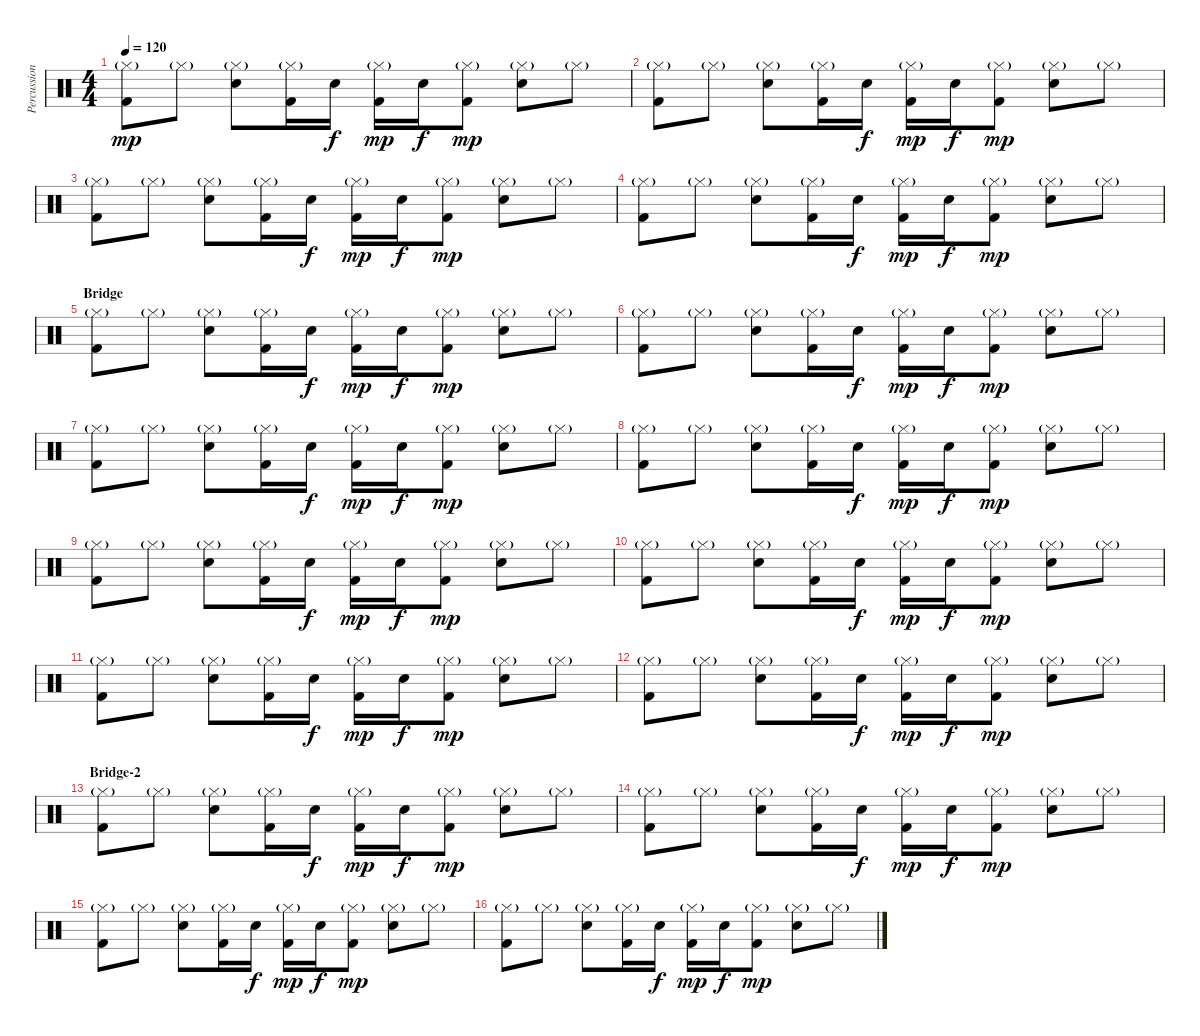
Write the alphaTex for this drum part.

\track ("Percussions" "Percussion") {instrument percussion}
\staff {score}
\articulation defaults
\ts (4 4)
\tempo 120
\clef neutral
\ks c
("Hi-Hat (closed)"{g} "Kick (hit) 2").8{dy mp} "Hi-Hat (closed)"{g}.8 ("Hi-Hat (closed)"{g} "Snare (hit) 2").8 ("Hi-Hat (closed)"{g} "Kick (hit) 2").16 "Snare (hit) 2".16{dy f} ("Hi-Hat (closed)"{g} "Kick (hit) 2").16{dy mp} "Snare (hit) 2".16{dy f} ("Hi-Hat (closed)"{g} "Kick (hit) 2").8{dy mp} ("Hi-Hat (closed)"{g} "Snare (hit) 2").8 "Hi-Hat (closed)"{g}.8 |
("Hi-Hat (closed)"{g} "Kick (hit) 2").8 "Hi-Hat (closed)"{g}.8 ("Hi-Hat (closed)"{g} "Snare (hit) 2").8 ("Hi-Hat (closed)"{g} "Kick (hit) 2").16 "Snare (hit) 2".16{dy f} ("Hi-Hat (closed)"{g} "Kick (hit) 2").16{dy mp} "Snare (hit) 2".16{dy f} ("Hi-Hat (closed)"{g} "Kick (hit) 2").8{dy mp} ("Hi-Hat (closed)"{g} "Snare (hit) 2").8 "Hi-Hat (closed)"{g}.8 |
("Hi-Hat (closed)"{g} "Kick (hit) 2").8 "Hi-Hat (closed)"{g}.8 ("Hi-Hat (closed)"{g} "Snare (hit) 2").8 ("Hi-Hat (closed)"{g} "Kick (hit) 2").16 "Snare (hit) 2".16{dy f} ("Hi-Hat (closed)"{g} "Kick (hit) 2").16{dy mp} "Snare (hit) 2".16{dy f} ("Hi-Hat (closed)"{g} "Kick (hit) 2").8{dy mp} ("Hi-Hat (closed)"{g} "Snare (hit) 2").8 "Hi-Hat (closed)"{g}.8 |
("Hi-Hat (closed)"{g} "Kick (hit) 2").8 "Hi-Hat (closed)"{g}.8 ("Hi-Hat (closed)"{g} "Snare (hit) 2").8 ("Hi-Hat (closed)"{g} "Kick (hit) 2").16 "Snare (hit) 2".16{dy f} ("Hi-Hat (closed)"{g} "Kick (hit) 2").16{dy mp} "Snare (hit) 2".16{dy f} ("Hi-Hat (closed)"{g} "Kick (hit) 2").8{dy mp} ("Hi-Hat (closed)"{g} "Snare (hit) 2").8 "Hi-Hat (closed)"{g}.8 |
\section ("" "Bridge")
("Hi-Hat (closed)"{g} "Kick (hit) 2").8 "Hi-Hat (closed)"{g}.8 ("Hi-Hat (closed)"{g} "Snare (hit) 2").8 ("Hi-Hat (closed)"{g} "Kick (hit) 2").16 "Snare (hit) 2".16{dy f} ("Hi-Hat (closed)"{g} "Kick (hit) 2").16{dy mp} "Snare (hit) 2".16{dy f} ("Hi-Hat (closed)"{g} "Kick (hit) 2").8{dy mp} ("Hi-Hat (closed)"{g} "Snare (hit) 2").8 "Hi-Hat (closed)"{g}.8 |
("Hi-Hat (closed)"{g} "Kick (hit) 2").8 "Hi-Hat (closed)"{g}.8 ("Hi-Hat (closed)"{g} "Snare (hit) 2").8 ("Hi-Hat (closed)"{g} "Kick (hit) 2").16 "Snare (hit) 2".16{dy f} ("Hi-Hat (closed)"{g} "Kick (hit) 2").16{dy mp} "Snare (hit) 2".16{dy f} ("Hi-Hat (closed)"{g} "Kick (hit) 2").8{dy mp} ("Hi-Hat (closed)"{g} "Snare (hit) 2").8 "Hi-Hat (closed)"{g}.8 |
("Hi-Hat (closed)"{g} "Kick (hit) 2").8 "Hi-Hat (closed)"{g}.8 ("Hi-Hat (closed)"{g} "Snare (hit) 2").8 ("Hi-Hat (closed)"{g} "Kick (hit) 2").16 "Snare (hit) 2".16{dy f} ("Hi-Hat (closed)"{g} "Kick (hit) 2").16{dy mp} "Snare (hit) 2".16{dy f} ("Hi-Hat (closed)"{g} "Kick (hit) 2").8{dy mp} ("Hi-Hat (closed)"{g} "Snare (hit) 2").8 "Hi-Hat (closed)"{g}.8 |
("Hi-Hat (closed)"{g} "Kick (hit) 2").8 "Hi-Hat (closed)"{g}.8 ("Hi-Hat (closed)"{g} "Snare (hit) 2").8 ("Hi-Hat (closed)"{g} "Kick (hit) 2").16 "Snare (hit) 2".16{dy f} ("Hi-Hat (closed)"{g} "Kick (hit) 2").16{dy mp} "Snare (hit) 2".16{dy f} ("Hi-Hat (closed)"{g} "Kick (hit) 2").8{dy mp} ("Hi-Hat (closed)"{g} "Snare (hit) 2").8 "Hi-Hat (closed)"{g}.8 |
("Hi-Hat (closed)"{g} "Kick (hit) 2").8 "Hi-Hat (closed)"{g}.8 ("Hi-Hat (closed)"{g} "Snare (hit) 2").8 ("Hi-Hat (closed)"{g} "Kick (hit) 2").16 "Snare (hit) 2".16{dy f} ("Hi-Hat (closed)"{g} "Kick (hit) 2").16{dy mp} "Snare (hit) 2".16{dy f} ("Hi-Hat (closed)"{g} "Kick (hit) 2").8{dy mp} ("Hi-Hat (closed)"{g} "Snare (hit) 2").8 "Hi-Hat (closed)"{g}.8 |
("Hi-Hat (closed)"{g} "Kick (hit) 2").8 "Hi-Hat (closed)"{g}.8 ("Hi-Hat (closed)"{g} "Snare (hit) 2").8 ("Hi-Hat (closed)"{g} "Kick (hit) 2").16 "Snare (hit) 2".16{dy f} ("Hi-Hat (closed)"{g} "Kick (hit) 2").16{dy mp} "Snare (hit) 2".16{dy f} ("Hi-Hat (closed)"{g} "Kick (hit) 2").8{dy mp} ("Hi-Hat (closed)"{g} "Snare (hit) 2").8 "Hi-Hat (closed)"{g}.8 |
("Hi-Hat (closed)"{g} "Kick (hit) 2").8 "Hi-Hat (closed)"{g}.8 ("Hi-Hat (closed)"{g} "Snare (hit) 2").8 ("Hi-Hat (closed)"{g} "Kick (hit) 2").16 "Snare (hit) 2".16{dy f} ("Hi-Hat (closed)"{g} "Kick (hit) 2").16{dy mp} "Snare (hit) 2".16{dy f} ("Hi-Hat (closed)"{g} "Kick (hit) 2").8{dy mp} ("Hi-Hat (closed)"{g} "Snare (hit) 2").8 "Hi-Hat (closed)"{g}.8 |
("Hi-Hat (closed)"{g} "Kick (hit) 2").8 "Hi-Hat (closed)"{g}.8 ("Hi-Hat (closed)"{g} "Snare (hit) 2").8 ("Hi-Hat (closed)"{g} "Kick (hit) 2").16 "Snare (hit) 2".16{dy f} ("Hi-Hat (closed)"{g} "Kick (hit) 2").16{dy mp} "Snare (hit) 2".16{dy f} ("Hi-Hat (closed)"{g} "Kick (hit) 2").8{dy mp} ("Hi-Hat (closed)"{g} "Snare (hit) 2").8 "Hi-Hat (closed)"{g}.8 |
\section ("" "Bridge-2")
("Hi-Hat (closed)"{g} "Kick (hit) 2").8 "Hi-Hat (closed)"{g}.8 ("Hi-Hat (closed)"{g} "Snare (hit) 2").8 ("Hi-Hat (closed)"{g} "Kick (hit) 2").16 "Snare (hit) 2".16{dy f} ("Hi-Hat (closed)"{g} "Kick (hit) 2").16{dy mp} "Snare (hit) 2".16{dy f} ("Hi-Hat (closed)"{g} "Kick (hit) 2").8{dy mp} ("Hi-Hat (closed)"{g} "Snare (hit) 2").8 "Hi-Hat (closed)"{g}.8 |
("Hi-Hat (closed)"{g} "Kick (hit) 2").8 "Hi-Hat (closed)"{g}.8 ("Hi-Hat (closed)"{g} "Snare (hit) 2").8 ("Hi-Hat (closed)"{g} "Kick (hit) 2").16 "Snare (hit) 2".16{dy f} ("Hi-Hat (closed)"{g} "Kick (hit) 2").16{dy mp} "Snare (hit) 2".16{dy f} ("Hi-Hat (closed)"{g} "Kick (hit) 2").8{dy mp} ("Hi-Hat (closed)"{g} "Snare (hit) 2").8 "Hi-Hat (closed)"{g}.8 |
("Hi-Hat (closed)"{g} "Kick (hit) 2").8 "Hi-Hat (closed)"{g}.8 ("Hi-Hat (closed)"{g} "Snare (hit) 2").8 ("Hi-Hat (closed)"{g} "Kick (hit) 2").16 "Snare (hit) 2".16{dy f} ("Hi-Hat (closed)"{g} "Kick (hit) 2").16{dy mp} "Snare (hit) 2".16{dy f} ("Hi-Hat (closed)"{g} "Kick (hit) 2").8{dy mp} ("Hi-Hat (closed)"{g} "Snare (hit) 2").8 "Hi-Hat (closed)"{g}.8 |
("Hi-Hat (closed)"{g} "Kick (hit) 2").8 "Hi-Hat (closed)"{g}.8 ("Hi-Hat (closed)"{g} "Snare (hit) 2").8 ("Hi-Hat (closed)"{g} "Kick (hit) 2").16 "Snare (hit) 2".16{dy f} ("Hi-Hat (closed)"{g} "Kick (hit) 2").16{dy mp} "Snare (hit) 2".16{dy f} ("Hi-Hat (closed)"{g} "Kick (hit) 2").8{dy mp} ("Hi-Hat (closed)"{g} "Snare (hit) 2").8 "Hi-Hat (closed)"{g}.8
